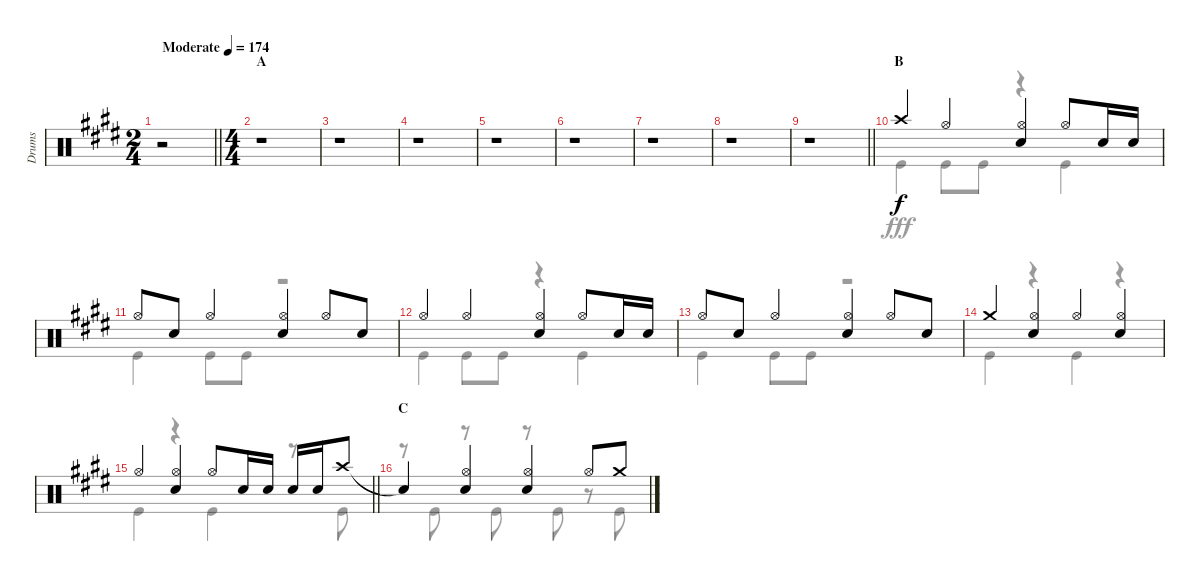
\track ("Drums" "Drums") {instrument percussion}
\staff {score}
\articulation defaults
\voice
\ts (2 4)
\tempo (174 "Moderate")
\clef neutral
\barLineRight lightlight
\ks e
r.2{dy f} |
\ts (4 4)
\section ("" "A")
r.1 |
r.1 |
r.1 |
r.1 |
r.1 |
r.1 |
r.1 |
\barLineRight lightlight
r.1 |
\section ("" "B")
"Crash high (hit)".4 "Hi-Hat (open)".4 ("Hi-Hat (open)" "Snare (hit) 2").4 "Hi-Hat (open)".8 "Snare (hit) 2".16 "Snare (hit) 2".16 |
"Hi-Hat (open)".8 "Snare (hit) 2".8 "Hi-Hat (open)".4 ("Hi-Hat (open)" "Snare (hit) 2").4 "Hi-Hat (open)".8 "Snare (hit) 2".8 |
"Hi-Hat (open)".4 "Hi-Hat (open)".4 ("Hi-Hat (open)" "Snare (hit) 2").4 "Hi-Hat (open)".8 "Snare (hit) 2".16 "Snare (hit) 2".16 |
"Hi-Hat (open)".8 "Snare (hit) 2".8 "Hi-Hat (open)".4 ("Hi-Hat (open)" "Snare (hit) 2").4 "Hi-Hat (open)".8 "Snare (hit) 2".8 |
"Crash medium (hit)".4 ("Hi-Hat (open)" "Snare (hit) 2").4 "Hi-Hat (open)".4 ("Hi-Hat (open)" "Snare (hit) 2").4 |
\barLineRight lightlight "Hi-Hat (open)".4
("Hi-Hat (open)" "Snare (hit) 2").4 "Hi-Hat (open)".8 "Snare (hit) 2".16 "Snare (hit) 2".16 "Snare (hit) 2".16 "Snare (hit) 2".16 "Crash high (hit)".8 |
\section ("" "C")
"Snare (hit)"{t}.4 ("Hi-Hat (open)" "Snare (hit) 2").4 ("Hi-Hat (open)" "Snare (hit) 2").4 "Hi-Hat (open)".8 "Crash medium (hit)".8
\voice
\clef neutral
\ottava regular
\simile none
\barLineRight lightlight
\ks e
r.2{dy fff} |
r.1 |
r.1 |
r.1 |
r.1 |
r.1 |
r.1 |
r.1 |
\barLineRight lightlight
r.1 |
"Kick (hit)".4 "Kick (hit)".8 "Kick (hit)".8 r.4 "Kick (hit)".4 |
"Kick (hit)".4 "Kick (hit)".8 "Kick (hit)".8 r.2 |
"Kick (hit)".4 "Kick (hit)".8 "Kick (hit)".8 r.4 "Kick (hit)".4 |
"Kick (hit)".4 "Kick (hit)".8 "Kick (hit)".8 r.2 |
"Kick (hit)".4 r.4 "Kick (hit)".4 r.4 |
\barLineRight lightlight "Kick (hit)".4
r.4 "Kick (hit)".4 r.8 "Kick (hit)".8 |
r.8 "Kick (hit)".8 r.8 "Kick (hit)".8 r.8 "Kick (hit)".8 r.8 "Kick (hit)".8
